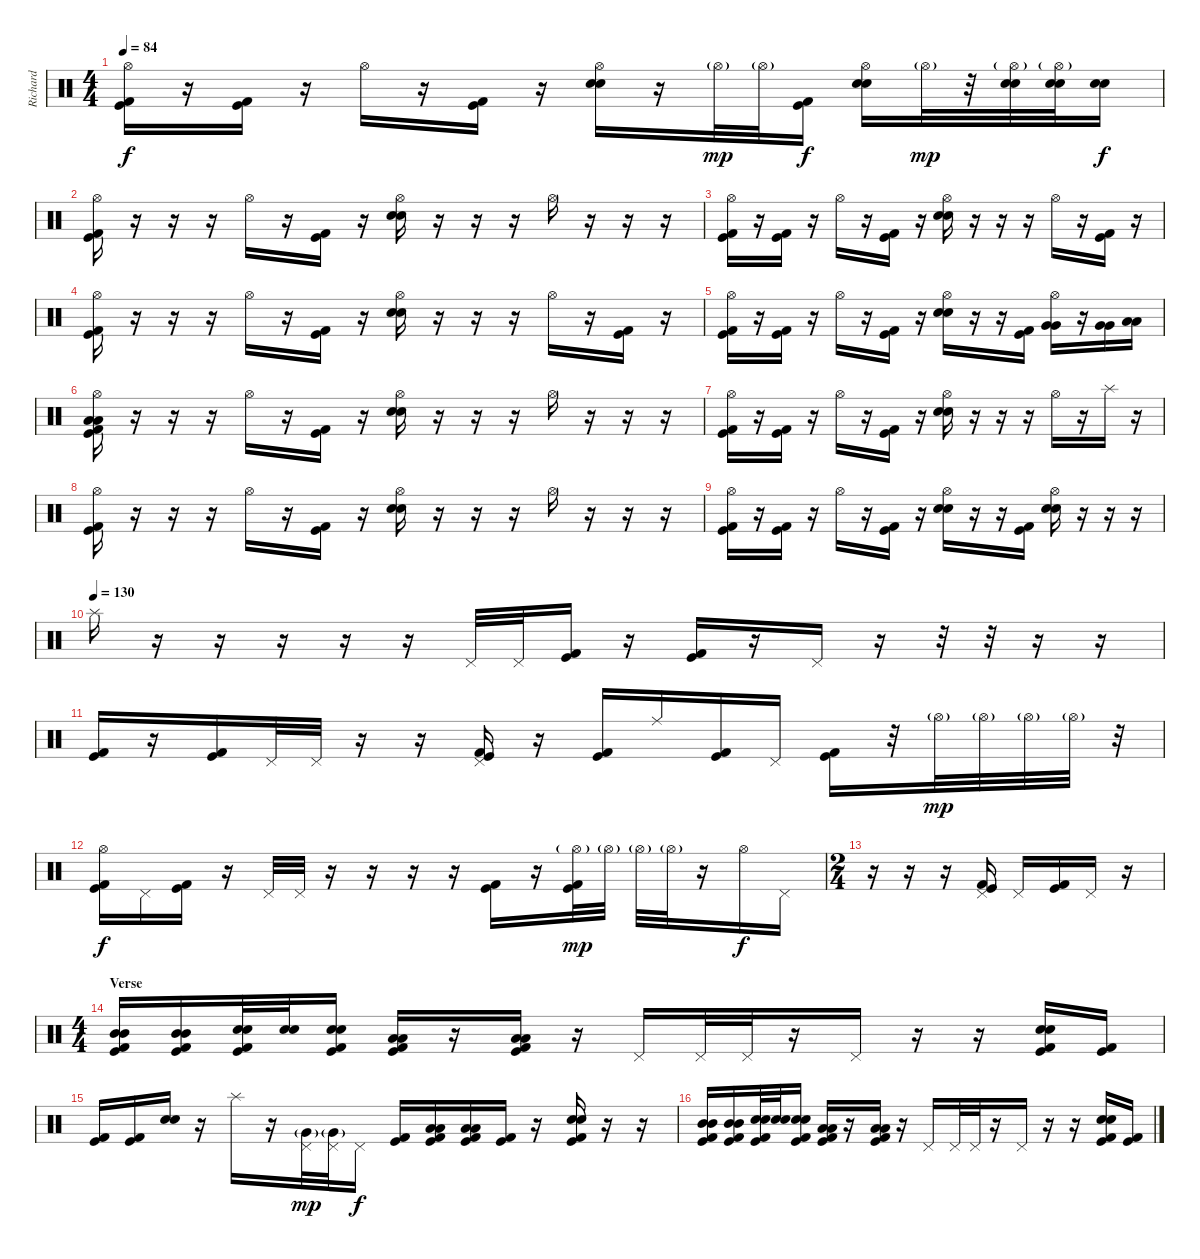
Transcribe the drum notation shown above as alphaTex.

\track ("Richard" "Richard") {instrument percussion}
\staff {score}
\articulation defaults
\ts (4 4)
\tempo 84
\clef neutral
\ks c
("Hi-Hat (open)" "Kick (hit) 2" "Kick (hit)").16{dy f} r.16 ("Kick (hit) 2" "Kick (hit)").16 r.16 "Hi-Hat (open)".16 r.16 ("Kick (hit) 2" "Kick (hit)").16 r.16 ("Hi-Hat (open)" "Snare (hit) 2" "Electric Snare (hit)").16 r.16 "Hi-Hat (open)"{g}.32{dy mp} "Hi-Hat (open)"{g}.32 ("Kick (hit) 2" "Kick (hit)").16{dy f} ("Hi-Hat (open)" "Snare (hit) 2" "Electric Snare (hit)").16 "Hi-Hat (open)"{g}.32{dy mp} r.32 ("Hi-Hat (open)"{g} "Snare (hit) 2" "Electric Snare (hit)").32 ("Hi-Hat (open)"{g} "Snare (hit) 2" "Electric Snare (hit)").32 ("Snare (hit) 2" "Electric Snare (hit)").16{dy f} |
("Hi-Hat (open)" "Kick (hit) 2" "Kick (hit)").16 r.16 r.16 r.16 "Hi-Hat (open)".16 r.16 ("Kick (hit)" "Kick (hit) 2").16 r.16 ("Hi-Hat (open)" "Snare (hit) 2" "Electric Snare (hit)").16 r.16 r.16 r.16 "Hi-Hat (open)".16 r.16 r.16 r.16 |
("Hi-Hat (open)" "Kick (hit) 2" "Kick (hit)").16 r.16 ("Kick (hit) 2" "Kick (hit)").16 r.16 "Hi-Hat (open)".16 r.16 ("Kick (hit) 2" "Kick (hit)").16 r.16 ("Hi-Hat (open)" "Snare (hit) 2" "Electric Snare (hit)").16 r.16 r.16 r.16 "Hi-Hat (open)".16 r.16 ("Kick (hit)" "Kick (hit) 2").16 r.16 |
("Hi-Hat (open)" "Kick (hit) 2" "Kick (hit)").16 r.16 r.16 r.16 "Hi-Hat (open)".16 r.16 ("Kick (hit)" "Kick (hit) 2").16 r.16 ("Hi-Hat (open)" "Snare (hit) 2" "Electric Snare (hit)").16 r.16 r.16 r.16 "Hi-Hat (open)".16 r.16 ("Kick (hit)" "Kick (hit) 2").16 r.16 |
("Hi-Hat (open)" "Kick (hit) 2" "Kick (hit)").16 r.16 ("Kick (hit)" "Kick (hit) 2").16 r.16 "Hi-Hat (open)".16 r.16 ("Kick (hit) 2" "Kick (hit)").16 r.16 ("Hi-Hat (open)" "Snare (hit) 2" "Electric Snare (hit)").16 r.16 r.16 ("Kick (hit) 2" "Kick (hit)").16 ("Hi-Hat (open)" "Very Low Tom (hit)" "Very Low Tom (hit)").16 r.16 ("Very Low Tom (hit)" "Very Low Tom (hit)").16 ("Low Floor Tom (hit)" "Low Floor Tom (hit)").16 |
("Hi-Hat (open)" "Low Floor Tom (hit)" "Low Floor Tom (hit)" "Kick (hit) 2" "Kick (hit)").16 r.16 r.16 r.16 "Hi-Hat (open)".16 r.16 ("Kick (hit)" "Kick (hit) 2").16 r.16 ("Hi-Hat (open)" "Snare (hit) 2" "Electric Snare (hit)").16 r.16 r.16 r.16 "Hi-Hat (open)".16 r.16 r.16 r.16 |
("Hi-Hat (open)" "Kick (hit) 2" "Kick (hit)").16 r.16 ("Kick (hit) 2" "Kick (hit)").16 r.16 "Hi-Hat (open)".16 r.16 ("Kick (hit) 2" "Kick (hit)").16 r.16 ("Hi-Hat (open)" "Snare (hit) 2" "Electric Snare (hit)").16 r.16 r.16 r.16 "Hi-Hat (open)".16 r.16 "Splash (hit)".16 r.16 |
("Hi-Hat (open)" "Kick (hit) 2" "Kick (hit)").16 r.16 r.16 r.16 "Hi-Hat (open)".16 r.16 ("Kick (hit)" "Kick (hit) 2").16 r.16 ("Hi-Hat (open)" "Snare (hit) 2" "Electric Snare (hit)").16 r.16 r.16 r.16 "Hi-Hat (open)".16 r.16 r.16 r.16 |
("Hi-Hat (open)" "Kick (hit) 2" "Kick (hit)").16 r.16 ("Kick (hit) 2" "Kick (hit)").16 r.16 "Hi-Hat (open)".16 r.16 ("Kick (hit) 2" "Kick (hit)").16 r.16 ("Hi-Hat (open)" "Snare (hit) 2" "Electric Snare (hit)").16 r.16 r.16 ("Kick (hit) 2" "Kick (hit)").16 ("Hi-Hat (open)" "Snare (hit) 2" "Electric Snare (hit)").16 r.16 r.16 r.16 |
\tempo (130)
"Splash (hit)".16 r.16 r.16 r.16 r.16 r.16 "Pedal Hi-Hat (hit)".32 "Pedal Hi-Hat (hit)".32 ("Kick (hit)" "Kick (hit) 2").16 r.16 ("Kick (hit)" "Kick (hit) 2").16 r.16 "Pedal Hi-Hat (hit)".16 r.16 r.32 r.32 r.16 r.16 |
("Kick (hit) 2" "Kick (hit)").16 r.16 ("Kick (hit) 2" "Kick (hit)").16 "Pedal Hi-Hat (hit)".32 "Pedal Hi-Hat (hit)".32 r.16 r.16 ("Pedal Hi-Hat (hit)" "Kick (hit)" "Kick (hit) 2").16 r.16 ("Kick (hit)" "Kick (hit) 2").16 "Ride (middle)".16 ("Kick (hit)" "Kick (hit) 2").16 "Pedal Hi-Hat (hit)".16 ("Kick (hit)" "Kick (hit) 2").16 r.32 "Hi-Hat (open)"{g}.32{dy mp} "Hi-Hat (open)"{g}.32 "Hi-Hat (open)"{g}.32 "Hi-Hat (open)"{g}.32 r.32 |
("Hi-Hat (open)" "Kick (hit)" "Kick (hit) 2").16{dy f} "Pedal Hi-Hat (hit)".16 ("Kick (hit)" "Kick (hit) 2").16 r.16 "Pedal Hi-Hat (hit)".32 "Pedal Hi-Hat (hit)".32 r.16 r.16 r.16 r.16 ("Kick (hit)" "Kick (hit) 2").16 r.16 ("Hi-Hat (open)"{g} "Kick (hit)" "Kick (hit) 2").32{dy mp} "Hi-Hat (open)"{g}.32 "Hi-Hat (open)"{g}.32 "Hi-Hat (open)"{g}.32 r.16 "Hi-Hat (open)".16{dy f} "Pedal Hi-Hat (hit)".16 |
\ts (2 4)
r.16 r.16 r.16 ("Pedal Hi-Hat (hit)" "Kick (hit)" "Kick (hit) 2").16 "Pedal Hi-Hat (hit)".16 ("Kick (hit)" "Kick (hit) 2").16 "Pedal Hi-Hat (hit)".16 r.16 |
\ts (4 4)
\section ("" "Verse")
("Mid Tom (hit)" "Mid Tom (hit)" "Kick (hit)" "Kick (hit) 2").16 ("Mid Tom (hit)" "Mid Tom (hit)" "Kick (hit)" "Kick (hit) 2").16 ("Snare (hit) 2" "Electric Snare (hit)" "Kick (hit)" "Kick (hit) 2").32 ("Snare (hit) 2" "Electric Snare (hit)").32 ("Snare (hit) 2" "Electric Snare (hit)" "Kick (hit)" "Kick (hit) 2").16 ("Low Tom (hit)" "Low Tom (hit)" "Kick (hit)" "Kick (hit) 2").16 r.16 ("Low Tom (hit)" "Low Tom (hit)" "Kick (hit)" "Kick (hit) 2").16 r.16 "Pedal Hi-Hat (hit)".16 "Pedal Hi-Hat (hit)".32 "Pedal Hi-Hat (hit)".32 r.16 "Pedal Hi-Hat (hit)".16 r.16 r.16 ("Snare (hit) 2" "Electric Snare (hit)" "Kick (hit)" "Kick (hit) 2").16 ("Kick (hit)" "Kick (hit) 2").16 |
("Kick (hit)" "Kick (hit) 2").16 ("Kick (hit)" "Kick (hit) 2").16 ("Snare (hit) 2" "Electric Snare (hit)").16 r.16 "Splash (hit)".16 r.16 ("Pedal Hi-Hat (hit)" "Very Low Tom (hit)"{g}).32{dy mp} ("Pedal Hi-Hat (hit)" "Very Low Tom (hit)"{g}).32 "Pedal Hi-Hat (hit)".16{dy f} ("Kick (hit)" "Kick (hit) 2").16 ("Low Tom (hit)" "Low Tom (hit)" "Kick (hit)" "Kick (hit) 2").16 ("Low Tom (hit)" "Low Tom (hit)" "Kick (hit)" "Kick (hit) 2").16 ("Kick (hit)" "Kick (hit) 2").16 r.16 ("Snare (hit) 2" "Electric Snare (hit)" "Kick (hit)" "Kick (hit) 2").16 r.16 r.16 |
("Mid Tom (hit)" "Mid Tom (hit)" "Kick (hit)" "Kick (hit) 2").16 ("Mid Tom (hit)" "Mid Tom (hit)" "Kick (hit)" "Kick (hit) 2").16 ("Snare (hit) 2" "Electric Snare (hit)" "Kick (hit)" "Kick (hit) 2").32 ("Snare (hit) 2" "Electric Snare (hit)").32 ("Snare (hit) 2" "Electric Snare (hit)" "Kick (hit)" "Kick (hit) 2").16 ("Low Tom (hit)" "Low Tom (hit)" "Kick (hit)" "Kick (hit) 2").16 r.16 ("Low Tom (hit)" "Low Tom (hit)" "Kick (hit)" "Kick (hit) 2").16 r.16 "Pedal Hi-Hat (hit)".16 "Pedal Hi-Hat (hit)".32 "Pedal Hi-Hat (hit)".32 r.16 "Pedal Hi-Hat (hit)".16 r.16 r.16 ("Snare (hit) 2" "Electric Snare (hit)" "Kick (hit)" "Kick (hit) 2").16 ("Kick (hit)" "Kick (hit) 2").16
